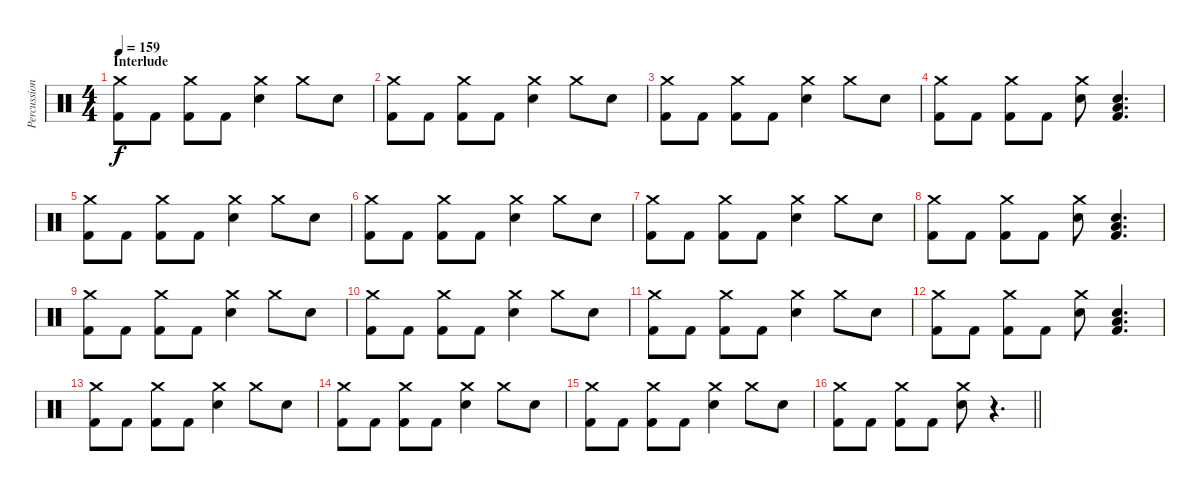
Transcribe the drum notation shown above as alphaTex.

\track ("Percussion" "Percussion") {instrument percussion}
\staff {score}
\articulation defaults
\ts (4 4)
\section ("" "Interlude")
\tempo 159
\clef neutral
\ks c
("Crash medium (hit)" "Kick (hit) 2").8{dy f} "Kick (hit) 2".8 ("Crash medium (hit)" "Kick (hit) 2").8 "Kick (hit) 2".8 ("Crash medium (hit)" "Electric Snare (hit)").4 "Crash medium (hit)".8 "Electric Snare (hit)".8 |
("Crash medium (hit)" "Kick (hit) 2").8 "Kick (hit) 2".8 ("Crash medium (hit)" "Kick (hit) 2").8 "Kick (hit) 2".8 ("Crash medium (hit)" "Electric Snare (hit)").4 "Crash medium (hit)".8 "Electric Snare (hit)".8 |
("Crash medium (hit)" "Kick (hit) 2").8 "Kick (hit) 2".8 ("Crash medium (hit)" "Kick (hit) 2").8 "Kick (hit) 2".8 ("Crash medium (hit)" "Electric Snare (hit)").4 "Crash medium (hit)".8 "Electric Snare (hit)".8 |
("Crash medium (hit)" "Kick (hit) 2").8 "Kick (hit) 2".8 ("Crash medium (hit)" "Kick (hit) 2").8 "Kick (hit) 2".8 ("Crash medium (hit)" "Electric Snare (hit)").8 ("Low Tom (hit)" "Electric Snare (hit)" "Kick (hit) 2").4{d} |
("Crash medium (hit)" "Kick (hit) 2").8 "Kick (hit) 2".8 ("Crash medium (hit)" "Kick (hit) 2").8 "Kick (hit) 2".8 ("Crash medium (hit)" "Electric Snare (hit)").4 "Crash medium (hit)".8 "Electric Snare (hit)".8 |
("Crash medium (hit)" "Kick (hit) 2").8 "Kick (hit) 2".8 ("Crash medium (hit)" "Kick (hit) 2").8 "Kick (hit) 2".8 ("Crash medium (hit)" "Electric Snare (hit)").4 "Crash medium (hit)".8 "Electric Snare (hit)".8 |
("Crash medium (hit)" "Kick (hit) 2").8 "Kick (hit) 2".8 ("Crash medium (hit)" "Kick (hit) 2").8 "Kick (hit) 2".8 ("Crash medium (hit)" "Electric Snare (hit)").4 "Crash medium (hit)".8 "Electric Snare (hit)".8 |
("Crash medium (hit)" "Kick (hit) 2").8 "Kick (hit) 2".8 ("Crash medium (hit)" "Kick (hit) 2").8 "Kick (hit) 2".8 ("Crash medium (hit)" "Electric Snare (hit)").8 ("Low Tom (hit)" "Electric Snare (hit)" "Kick (hit) 2").4{d} |
("Crash medium (hit)" "Kick (hit) 2").8 "Kick (hit) 2".8 ("Crash medium (hit)" "Kick (hit) 2").8 "Kick (hit) 2".8 ("Crash medium (hit)" "Electric Snare (hit)").4 "Crash medium (hit)".8 "Electric Snare (hit)".8 |
("Crash medium (hit)" "Kick (hit) 2").8 "Kick (hit) 2".8 ("Crash medium (hit)" "Kick (hit) 2").8 "Kick (hit) 2".8 ("Crash medium (hit)" "Electric Snare (hit)").4 "Crash medium (hit)".8 "Electric Snare (hit)".8 |
("Crash medium (hit)" "Kick (hit) 2").8 "Kick (hit) 2".8 ("Crash medium (hit)" "Kick (hit) 2").8 "Kick (hit) 2".8 ("Crash medium (hit)" "Electric Snare (hit)").4 "Crash medium (hit)".8 "Electric Snare (hit)".8 |
("Crash medium (hit)" "Kick (hit) 2").8 "Kick (hit) 2".8 ("Crash medium (hit)" "Kick (hit) 2").8 "Kick (hit) 2".8 ("Crash medium (hit)" "Electric Snare (hit)").8 ("Low Tom (hit)" "Electric Snare (hit)" "Kick (hit) 2").4{d} |
("Crash medium (hit)" "Kick (hit) 2").8 "Kick (hit) 2".8 ("Crash medium (hit)" "Kick (hit) 2").8 "Kick (hit) 2".8 ("Crash medium (hit)" "Electric Snare (hit)").4 "Crash medium (hit)".8 "Electric Snare (hit)".8 |
("Crash medium (hit)" "Kick (hit) 2").8 "Kick (hit) 2".8 ("Crash medium (hit)" "Kick (hit) 2").8 "Kick (hit) 2".8 ("Crash medium (hit)" "Electric Snare (hit)").4 "Crash medium (hit)".8 "Electric Snare (hit)".8 |
("Crash medium (hit)" "Kick (hit) 2").8 "Kick (hit) 2".8 ("Crash medium (hit)" "Kick (hit) 2").8 "Kick (hit) 2".8 ("Crash medium (hit)" "Electric Snare (hit)").4 "Crash medium (hit)".8 "Electric Snare (hit)".8 |
\barLineRight lightlight
("Crash medium (hit)" "Kick (hit) 2").8 "Kick (hit) 2".8 ("Crash medium (hit)" "Kick (hit) 2").8 "Kick (hit) 2".8 ("Crash medium (hit)" "Electric Snare (hit)").8 r.4{d}
